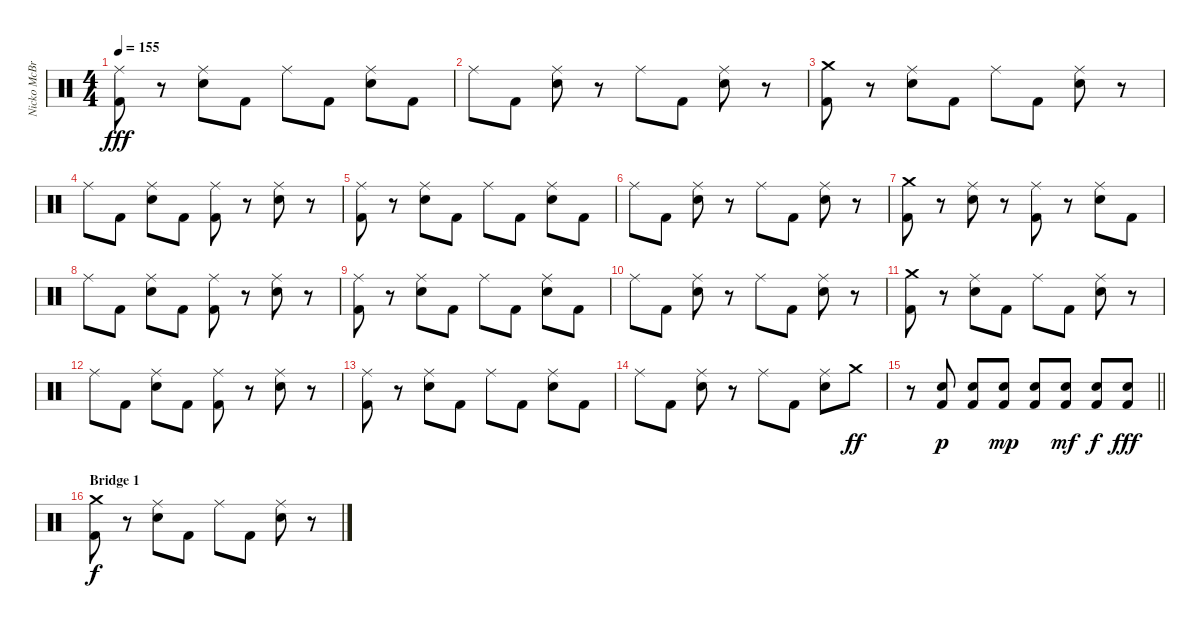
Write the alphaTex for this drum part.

\track ("Nicko McBrain" "Nicko McBr") {instrument percussion}
\staff {score}
\articulation defaults
\ts (4 4)
\tempo 155
\clef neutral
\ks c
("Ride (middle)" "Kick (hit) 2").8{dy fff} r.8 ("Ride (middle)" "Snare (hit) 2").8 "Kick (hit) 2".8 "Ride (middle)".8 "Kick (hit) 2".8 ("Ride (middle)" "Snare (hit) 2").8 "Kick (hit) 2".8 |
"Ride (middle)".8 "Kick (hit) 2".8 ("Ride (middle)" "Snare (hit) 2").8 r.8 "Ride (middle)".8 "Kick (hit) 2".8 ("Ride (middle)" "Snare (hit) 2").8 r.8 |
("Crash medium (hit)" "Kick (hit) 2").8 r.8 ("Ride (middle)" "Snare (hit) 2").8 "Kick (hit) 2".8 "Ride (middle)".8 "Kick (hit) 2".8 ("Ride (middle)" "Snare (hit) 2").8 r.8 |
"Ride (middle)".8 "Kick (hit) 2".8 ("Ride (middle)" "Snare (hit) 2").8 "Kick (hit) 2".8 ("Ride (middle)" "Kick (hit) 2").8 r.8 ("Ride (middle)" "Snare (hit) 2").8 r.8 |
("Ride (middle)" "Kick (hit) 2").8 r.8 ("Ride (middle)" "Snare (hit) 2").8 "Kick (hit) 2".8 "Ride (middle)".8 "Kick (hit) 2".8 ("Ride (middle)" "Snare (hit) 2").8 "Kick (hit) 2".8 |
"Ride (middle)".8 "Kick (hit) 2".8 ("Ride (middle)" "Snare (hit) 2").8 r.8 "Ride (middle)".8 "Kick (hit) 2".8 ("Ride (middle)" "Snare (hit) 2").8 r.8 |
("Crash medium (hit)" "Kick (hit) 2").8 r.8 ("Ride (middle)" "Snare (hit) 2").8 r.8 ("Ride (middle)" "Kick (hit) 2").8 r.8 ("Ride (middle)" "Snare (hit) 2").8 "Kick (hit) 2".8 |
"Ride (middle)".8 "Kick (hit) 2".8 ("Ride (middle)" "Snare (hit) 2").8 "Kick (hit) 2".8 ("Ride (middle)" "Kick (hit) 2").8 r.8 ("Ride (middle)" "Snare (hit) 2").8 r.8 |
("Ride (middle)" "Kick (hit) 2").8 r.8 ("Ride (middle)" "Snare (hit) 2").8 "Kick (hit) 2".8 "Ride (middle)".8 "Kick (hit) 2".8 ("Ride (middle)" "Snare (hit) 2").8 "Kick (hit) 2".8 |
"Ride (middle)".8 "Kick (hit) 2".8 ("Ride (middle)" "Snare (hit) 2").8 r.8 "Ride (middle)".8 "Kick (hit) 2".8 ("Ride (middle)" "Snare (hit) 2").8 r.8 |
("Crash medium (hit)" "Kick (hit) 2").8 r.8 ("Ride (middle)" "Snare (hit) 2").8 "Kick (hit) 2".8 "Ride (middle)".8 "Kick (hit) 2".8 ("Ride (middle)" "Snare (hit) 2").8 r.8 |
"Ride (middle)".8 "Kick (hit) 2".8 ("Ride (middle)" "Snare (hit) 2").8 "Kick (hit) 2".8 ("Ride (middle)" "Kick (hit) 2").8 r.8 ("Ride (middle)" "Snare (hit) 2").8 r.8 |
("Ride (middle)" "Kick (hit) 2").8 r.8 ("Ride (middle)" "Snare (hit) 2").8 "Kick (hit) 2".8 "Ride (middle)".8 "Kick (hit) 2".8 ("Ride (middle)" "Snare (hit) 2").8 "Kick (hit) 2".8 |
"Ride (middle)".8 "Kick (hit) 2".8 ("Ride (middle)" "Snare (hit) 2").8 r.8 "Ride (middle)".8 "Kick (hit) 2".8 ("Ride (middle)" "Snare (hit) 2").8 "Crash medium (hit)".8{dy ff} |
\barLineRight lightlight
r.8 ("Snare (hit) 2" "Kick (hit) 2").8{dy p} ("Snare (hit) 2" "Kick (hit) 2").8 ("Snare (hit) 2" "Kick (hit) 2").8{dy mp} ("Snare (hit) 2" "Kick (hit) 2").8 ("Snare (hit) 2" "Kick (hit) 2").8{dy mf} ("Snare (hit) 2" "Kick (hit) 2").8{dy f} ("Snare (hit) 2" "Kick (hit) 2").8{dy fff} |
\section ("" "Bridge 1")
("Crash medium (hit)" "Kick (hit) 2").8{dy f} r.8 ("Ride (middle)" "Snare (hit) 2").8 "Kick (hit) 2".8 "Ride (middle)".8 "Kick (hit) 2".8 ("Ride (middle)" "Snare (hit) 2").8 r.8
